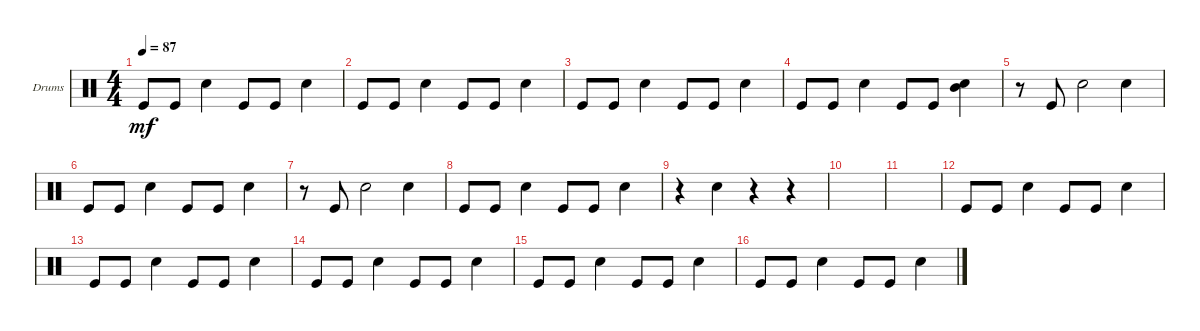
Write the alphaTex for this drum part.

\defaultSystemsLayout 4
\bracketExtendMode groupsimilarinstruments
\firstSystemTrackNameOrientation horizontal
\otherSystemsTrackNameOrientation horizontal
\track ("Body percussion (see notes)" "Drums") {instrument percussion}
\staff {score}
\articulation defaults
\ts (4 4)
\tempo 87
\clef neutral
\ks c "Kick (hit)".8{dy mf} "Kick (hit)".8 "Snare (hit) 2".4 "Kick (hit)".8 "Kick (hit)".8 "Snare (hit) 2".4
|
"Kick (hit)".8 "Kick (hit)".8 "Snare (hit) 2".4 "Kick (hit)".8 "Kick (hit)".8 "Snare (hit) 2".4 |
"Kick (hit)".8 "Kick (hit)".8 "Snare (hit) 2".4 "Kick (hit)".8 "Kick (hit)".8 "Snare (hit) 2".4 |
"Kick (hit)".8 "Kick (hit)".8 "Snare (hit) 2".4 "Kick (hit)".8 "Kick (hit)".8 ("Snare (hit) 2" "Mid Tom (hit)").4 |
r.8 "Kick (hit)".8 "Snare (hit) 2".2 "Snare (hit) 2".4 |
"Kick (hit)".8 "Kick (hit)".8 "Snare (hit) 2".4 "Kick (hit)".8 "Kick (hit)".8 "Snare (hit) 2".4 |
r.8 "Kick (hit)".8 "Snare (hit) 2".2 "Snare (hit) 2".4 |
"Kick (hit)".8 "Kick (hit)".8 "Snare (hit) 2".4 "Kick (hit)".8 "Kick (hit)".8 "Snare (hit) 2".4 |
r.4 "Snare (hit) 2".4 r.4 r.4 |
|
|
"Kick (hit)".8 "Kick (hit)".8 "Snare (hit) 2".4 "Kick (hit)".8 "Kick (hit)".8 "Snare (hit) 2".4 |
"Kick (hit)".8 "Kick (hit)".8 "Snare (hit) 2".4 "Kick (hit)".8 "Kick (hit)".8 "Snare (hit) 2".4 |
"Kick (hit)".8 "Kick (hit)".8 "Snare (hit) 2".4 "Kick (hit)".8 "Kick (hit)".8 "Snare (hit) 2".4 |
"Kick (hit)".8 "Kick (hit)".8 "Snare (hit) 2".4 "Kick (hit)".8 "Kick (hit)".8 "Snare (hit) 2".4 |
"Kick (hit)".8 "Kick (hit)".8 "Snare (hit) 2".4 "Kick (hit)".8 "Kick (hit)".8 "Snare (hit) 2".4
